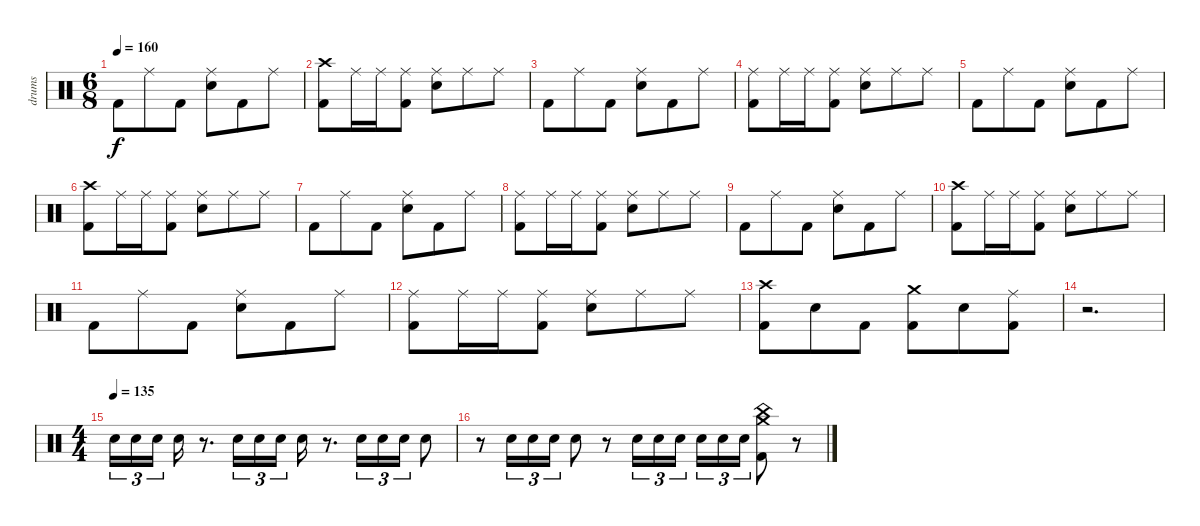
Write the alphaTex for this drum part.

\track ("drums" "drums") {instrument percussion}
\staff {score}
\articulation defaults
\ts (6 8)
\tempo 160
\clef neutral
\ks c "Kick (hit) 2".8{dy f} "Ride (middle)".8 "Kick (hit) 2".8
("Electric Snare (hit)" "Ride (middle)").8 "Kick (hit) 2".8 "Ride (middle)".8 |
("Kick (hit) 2" "Crash high (hit)").8 "Ride (middle)".16 "Ride (middle)".16 ("Kick (hit) 2" "Ride (middle)").8 ("Electric Snare (hit)" "Ride (middle)").8 "Ride (middle)".8 "Ride (middle)".8 |
"Kick (hit) 2".8 "Ride (middle)".8 "Kick (hit) 2".8 ("Electric Snare (hit)" "Ride (middle)").8 "Kick (hit) 2".8 "Ride (middle)".8 |
("Ride (middle)" "Kick (hit) 2").8 "Ride (middle)".16 "Ride (middle)".16 ("Kick (hit) 2" "Ride (middle)").8 ("Electric Snare (hit)" "Ride (middle)").8 "Ride (middle)".8 "Ride (middle)".8 |
"Kick (hit) 2".8 "Ride (middle)".8 "Kick (hit) 2".8 ("Electric Snare (hit)" "Ride (middle)").8 "Kick (hit) 2".8 "Ride (middle)".8 |
("Kick (hit) 2" "Crash high (hit)").8 "Ride (middle)".16 "Ride (middle)".16 ("Kick (hit) 2" "Ride (middle)").8 ("Electric Snare (hit)" "Ride (middle)").8 "Ride (middle)".8 "Ride (middle)".8 |
"Kick (hit) 2".8 "Ride (middle)".8 "Kick (hit) 2".8 ("Electric Snare (hit)" "Ride (middle)").8 "Kick (hit) 2".8 "Ride (middle)".8 |
("Ride (middle)" "Kick (hit) 2").8 "Ride (middle)".16 "Ride (middle)".16 ("Kick (hit) 2" "Ride (middle)").8 ("Electric Snare (hit)" "Ride (middle)").8 "Ride (middle)".8 "Ride (middle)".8 |
"Kick (hit) 2".8 "Ride (middle)".8 "Kick (hit) 2".8 ("Electric Snare (hit)" "Ride (middle)").8 "Kick (hit) 2".8 "Ride (middle)".8 |
("Kick (hit) 2" "Crash high (hit)").8 "Ride (middle)".16 "Ride (middle)".16 ("Kick (hit) 2" "Ride (middle)").8 ("Electric Snare (hit)" "Ride (middle)").8 "Ride (middle)".8 "Ride (middle)".8 |
"Kick (hit) 2".8 "Ride (middle)".8 "Kick (hit) 2".8 ("Electric Snare (hit)" "Ride (middle)").8 "Kick (hit) 2".8 "Ride (middle)".8 |
("Ride (middle)" "Kick (hit) 2").8 "Ride (middle)".16 "Ride (middle)".16 ("Kick (hit) 2" "Ride (middle)").8 ("Electric Snare (hit)" "Ride (middle)").8 "Ride (middle)".8 "Ride (middle)".8 |
("Crash high (hit)" "Kick (hit) 2").8 "Electric Snare (hit)".8 "Kick (hit) 2".8 ("Crash medium (hit)" "Kick (hit) 2").8 "Electric Snare (hit)".8 ("Kick (hit) 2" "Ride (middle)").8 |
r.2{d} |
\ts (4 4)
\tempo (135)
"Electric Snare (hit)".16{tu (3 2)} "Electric Snare (hit)".16{tu (3 2)} "Electric Snare (hit)".16{tu (3 2) beam splitsecondary} "Electric Snare (hit)".16 r.8{d} "Electric Snare (hit)".16{tu (3 2)} "Electric Snare (hit)".16{tu (3 2)} "Electric Snare (hit)".16{tu (3 2)} "Electric Snare (hit)".16 r.8{d} "Electric Snare (hit)".16{tu (3 2)} "Electric Snare (hit)".16{tu (3 2)} "Electric Snare (hit)".16{tu (3 2)} "Electric Snare (hit)".8 |
r.8 "Electric Snare (hit)".16{tu (3 2)} "Electric Snare (hit)".16{tu (3 2)} "Electric Snare (hit)".16{tu (3 2)} "Electric Snare (hit)".8 r.8 "Electric Snare (hit)".16{tu (3 2)} "Electric Snare (hit)".16{tu (3 2)} "Electric Snare (hit)".16{tu (3 2) beam splitsecondary} "Electric Snare (hit)".16{tu (3 2)} "Electric Snare (hit)".16{tu (3 2)} "Electric Snare (hit)".16{tu (3 2)} ("Crash medium (hit)" "China (hit)" "Kick (hit) 2").8 r.8
